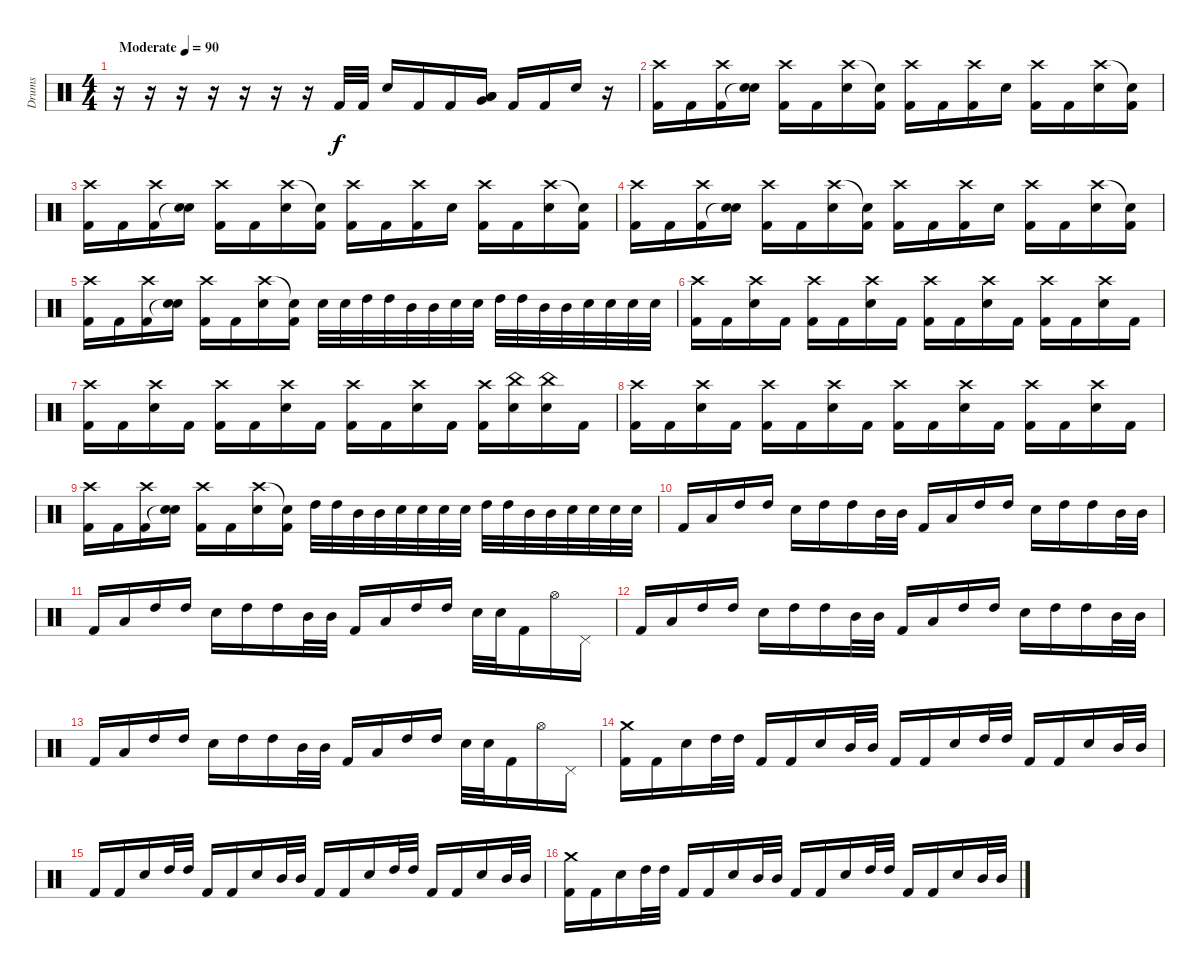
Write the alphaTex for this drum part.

\track ("Drums" "Drums") {instrument percussion}
\staff {score}
\articulation defaults
\ts (4 4)
\tempo (90 "Moderate")
\clef neutral
\ks c
r.16{dy f} r.16 r.16 r.16 r.16 r.16 r.16 "Kick (hit) 2".32 "Kick (hit) 2".32 "Electric Snare (hit)".16 "Kick (hit) 2".16 "Kick (hit) 2".16 ("Very Low Tom (hit)" "Low Floor Tom (hit)" "Low Tom (hit)").16 "Kick (hit) 2".16 "Kick (hit) 2".16 "Electric Snare (hit)".16 r.16 |
("Crash high (hit)" "Kick (hit) 2").16 "Kick (hit) 2".16 ("Crash high (hit)" "Kick (hit) 2").16 ("Electric Snare (hit)" "Snare (hit)"{t}).16 ("Crash high (hit)" "Kick (hit) 2").16 "Kick (hit) 2".16 ("Crash high (hit)" "Electric Snare (hit)").16 ("Snare (hit)"{t} "Kick (hit) 2").16 ("Crash high (hit)" "Kick (hit) 2").16 "Kick (hit) 2".16 ("Crash high (hit)" "Kick (hit) 2").16 "Electric Snare (hit)".16 ("Crash high (hit)" "Kick (hit) 2").16 "Kick (hit) 2".16 ("Crash high (hit)" "Electric Snare (hit)").16 ("Snare (hit)"{t} "Kick (hit) 2").16 |
("Crash high (hit)" "Kick (hit) 2").16 "Kick (hit) 2".16 ("Crash high (hit)" "Kick (hit) 2").16 ("Electric Snare (hit)" "Snare (hit)"{t}).16 ("Crash high (hit)" "Kick (hit) 2").16 "Kick (hit) 2".16 ("Crash high (hit)" "Electric Snare (hit)").16 ("Snare (hit)"{t} "Kick (hit) 2").16 ("Crash high (hit)" "Kick (hit) 2").16 "Kick (hit) 2".16 ("Crash high (hit)" "Kick (hit) 2").16 "Electric Snare (hit)".16 ("Crash high (hit)" "Kick (hit) 2").16 "Kick (hit) 2".16 ("Crash high (hit)" "Electric Snare (hit)").16 ("Snare (hit)"{t} "Kick (hit) 2").16 |
("Crash high (hit)" "Kick (hit) 2").16 "Kick (hit) 2".16 ("Crash high (hit)" "Kick (hit) 2").16 ("Electric Snare (hit)" "Snare (hit)"{t}).16 ("Crash high (hit)" "Kick (hit) 2").16 "Kick (hit) 2".16 ("Crash high (hit)" "Electric Snare (hit)").16 ("Snare (hit)"{t} "Kick (hit) 2").16 ("Crash high (hit)" "Kick (hit) 2").16 "Kick (hit) 2".16 ("Crash high (hit)" "Kick (hit) 2").16 "Electric Snare (hit)".16 ("Crash high (hit)" "Kick (hit) 2").16 "Kick (hit) 2".16 ("Crash high (hit)" "Electric Snare (hit)").16 ("Snare (hit)"{t} "Kick (hit) 2").16 |
("Crash high (hit)" "Kick (hit) 2").16 "Kick (hit) 2".16 ("Crash high (hit)" "Kick (hit) 2").16 ("Electric Snare (hit)" "Snare (hit)"{t}).16 ("Crash high (hit)" "Kick (hit) 2").16 "Kick (hit) 2".16 ("Crash high (hit)" "Electric Snare (hit)").16 ("Snare (hit)"{t} "Kick (hit) 2").16 "Electric Snare (hit)".32 "Electric Snare (hit)".32 "High Tom (hit)".32 "High Tom (hit)".32 "Mid Tom (hit)".32 "Mid Tom (hit)".32 "Electric Snare (hit)".32 "Electric Snare (hit)".32 "High Tom (hit)".32 "High Tom (hit)".32 "Mid Tom (hit)".32 "Mid Tom (hit)".32 "Electric Snare (hit)".32 "Electric Snare (hit)".32 "Electric Snare (hit)".32 "Electric Snare (hit)".32 |
("Crash high (hit)" "Kick (hit) 2").16 "Kick (hit) 2".16 ("Crash high (hit)" "Electric Snare (hit)").16 "Kick (hit) 2".16 ("Crash high (hit)" "Kick (hit) 2").16 "Kick (hit) 2".16 ("Crash high (hit)" "Electric Snare (hit)").16 "Kick (hit) 2".16 ("Crash high (hit)" "Kick (hit) 2").16 "Kick (hit) 2".16 ("Crash high (hit)" "Electric Snare (hit)").16 "Kick (hit) 2".16 ("Crash high (hit)" "Kick (hit) 2").16 "Kick (hit) 2".16 ("Crash high (hit)" "Electric Snare (hit)").16 "Kick (hit) 2".16 |
("Crash high (hit)" "Kick (hit) 2").16 "Kick (hit) 2".16 ("Crash high (hit)" "Electric Snare (hit)").16 "Kick (hit) 2".16 ("Crash high (hit)" "Kick (hit) 2").16 "Kick (hit) 2".16 ("Crash high (hit)" "Electric Snare (hit)").16 "Kick (hit) 2".16 ("Crash high (hit)" "Kick (hit) 2").16 "Kick (hit) 2".16 ("Crash high (hit)" "Electric Snare (hit)").16 "Kick (hit) 2".16 ("Crash high (hit)" "Kick (hit) 2").16 ("China (hit)" "Electric Snare (hit)").16 ("China (hit)" "Electric Snare (hit)").16 "Kick (hit) 2".16 |
("Crash high (hit)" "Kick (hit) 2").16 "Kick (hit) 2".16 ("Crash high (hit)" "Electric Snare (hit)").16 "Kick (hit) 2".16 ("Crash high (hit)" "Kick (hit) 2").16 "Kick (hit) 2".16 ("Crash high (hit)" "Electric Snare (hit)").16 "Kick (hit) 2".16 ("Crash high (hit)" "Kick (hit) 2").16 "Kick (hit) 2".16 ("Crash high (hit)" "Electric Snare (hit)").16 "Kick (hit) 2".16 ("Crash high (hit)" "Kick (hit) 2").16 "Kick (hit) 2".16 ("Crash high (hit)" "Electric Snare (hit)").16 "Kick (hit) 2".16 |
("Crash high (hit)" "Kick (hit) 2").16 "Kick (hit) 2".16 ("Crash high (hit)" "Kick (hit) 2").16 ("Electric Snare (hit)" "Snare (hit)"{t}).16 ("Crash high (hit)" "Kick (hit) 2").16 "Kick (hit) 2".16 ("Crash high (hit)" "Electric Snare (hit)").16 ("Snare (hit)"{t} "Kick (hit) 2").16 "High Tom (hit)".32 "High Tom (hit)".32 "Mid Tom (hit)".32 "Mid Tom (hit)".32 "Electric Snare (hit)".32 "Electric Snare (hit)".32 "Electric Snare (hit)".32 "Electric Snare (hit)".32 "High Tom (hit)".32 "High Tom (hit)".32 "Mid Tom (hit)".32 "Mid Tom (hit)".32 "Electric Snare (hit)".32 "Electric Snare (hit)".32 "Electric Snare (hit)".32 "Electric Snare (hit)".32 |
"Kick (hit) 2".16 "Low Tom (hit)".16 "High Tom (hit)".16 "High Tom (hit)".16 "Electric Snare (hit)".16 "High Tom (hit)".16 "High Tom (hit)".16 "Mid Tom (hit)".32 "Mid Tom (hit)".32 "Kick (hit) 2".16 "Low Tom (hit)".16 "High Tom (hit)".16 "High Tom (hit)".16 "Electric Snare (hit)".16 "High Tom (hit)".16 "High Tom (hit)".16 "Mid Tom (hit)".32 "Mid Tom (hit)".32 |
"Kick (hit) 2".16 "Low Tom (hit)".16 "High Tom (hit)".16 "High Tom (hit)".16 "Electric Snare (hit)".16 "High Tom (hit)".16 "High Tom (hit)".16 "Mid Tom (hit)".32 "Mid Tom (hit)".32 "Kick (hit) 2".16 "Low Tom (hit)".16 "High Tom (hit)".16 "High Tom (hit)".16 "Electric Snare (hit)".32 "Electric Snare (hit)".32 "Kick (hit) 2".16 "Hi-Hat (open)".16 "Pedal Hi-Hat (hit)".16 |
"Kick (hit) 2".16 "Low Tom (hit)".16 "High Tom (hit)".16 "High Tom (hit)".16 "Electric Snare (hit)".16 "High Tom (hit)".16 "High Tom (hit)".16 "Mid Tom (hit)".32 "Mid Tom (hit)".32 "Kick (hit) 2".16 "Low Tom (hit)".16 "High Tom (hit)".16 "High Tom (hit)".16 "Electric Snare (hit)".16 "High Tom (hit)".16 "High Tom (hit)".16 "Mid Tom (hit)".32 "Mid Tom (hit)".32 |
"Kick (hit) 2".16 "Low Tom (hit)".16 "High Tom (hit)".16 "High Tom (hit)".16 "Electric Snare (hit)".16 "High Tom (hit)".16 "High Tom (hit)".16 "Mid Tom (hit)".32 "Mid Tom (hit)".32 "Kick (hit) 2".16 "Low Tom (hit)".16 "High Tom (hit)".16 "High Tom (hit)".16 "Electric Snare (hit)".32 "Electric Snare (hit)".32 "Kick (hit) 2".16 "Hi-Hat (open)".16 "Pedal Hi-Hat (hit)".16 |
("Crash medium (hit)" "Kick (hit) 2").16 "Kick (hit) 2".16 "Electric Snare (hit)".16 "High Tom (hit)".32 "High Tom (hit)".32 "Kick (hit) 2".16 "Kick (hit) 2".16 "Electric Snare (hit)".16 "Mid Tom (hit)".32 "Mid Tom (hit)".32 "Kick (hit) 2".16 "Kick (hit) 2".16 "Electric Snare (hit)".16 "High Tom (hit)".32 "High Tom (hit)".32 "Kick (hit) 2".16 "Kick (hit) 2".16 "Electric Snare (hit)".16 "Mid Tom (hit)".32 "Mid Tom (hit)".32 |
"Kick (hit) 2".16 "Kick (hit) 2".16 "Electric Snare (hit)".16 "High Tom (hit)".32 "High Tom (hit)".32 "Kick (hit) 2".16 "Kick (hit) 2".16 "Electric Snare (hit)".16 "Mid Tom (hit)".32 "Mid Tom (hit)".32 "Kick (hit) 2".16 "Kick (hit) 2".16 "Electric Snare (hit)".16 "High Tom (hit)".32 "High Tom (hit)".32 "Kick (hit) 2".16 "Kick (hit) 2".16 "Electric Snare (hit)".16 "Mid Tom (hit)".32 "Mid Tom (hit)".32 |
("Crash medium (hit)" "Kick (hit) 2").16 "Kick (hit) 2".16 "Electric Snare (hit)".16 "High Tom (hit)".32 "High Tom (hit)".32 "Kick (hit) 2".16 "Kick (hit) 2".16 "Electric Snare (hit)".16 "Mid Tom (hit)".32 "Mid Tom (hit)".32 "Kick (hit) 2".16 "Kick (hit) 2".16 "Electric Snare (hit)".16 "High Tom (hit)".32 "High Tom (hit)".32 "Kick (hit) 2".16 "Kick (hit) 2".16 "Electric Snare (hit)".16 "Mid Tom (hit)".32 "Mid Tom (hit)".32
